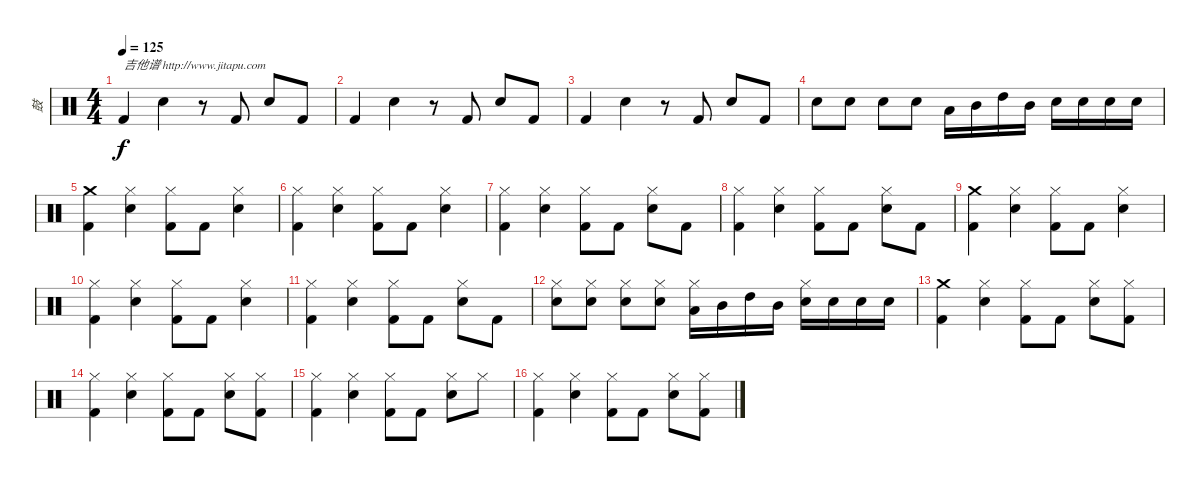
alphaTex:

\track ("鼓" "鼓") {instrument percussion}
\staff {score}
\articulation defaults
\ts (4 4)
\tempo 125
\clef neutral
\ks c "Kick (hit) 2".4{txt "吉他谱 http://www.jitapu.com" dy f} "Electric Snare (hit)".4
r.8 "Kick (hit) 2".8 "Electric Snare (hit)".8 "Kick (hit) 2".8 |
"Kick (hit) 2".4 "Electric Snare (hit)".4 r.8 "Kick (hit) 2".8 "Electric Snare (hit)".8 "Kick (hit) 2".8 |
"Kick (hit) 2".4 "Electric Snare (hit)".4 r.8 "Kick (hit) 2".8 "Electric Snare (hit)".8 "Kick (hit) 2".8 |
"Electric Snare (hit)".8 "Electric Snare (hit)".8 "Electric Snare (hit)".8 "Electric Snare (hit)".8 "Low Tom (hit)".16 "Mid Tom (hit)".16 "High Tom (hit)".16 "Mid Tom (hit)".16 "Electric Snare (hit)".16 "Electric Snare (hit)".16 "Electric Snare (hit)".16 "Electric Snare (hit)".16 |
("Crash medium (hit)" "Kick (hit) 2").4 ("Hi-Hat (closed)" "Electric Snare (hit)").4 ("Hi-Hat (closed)" "Kick (hit) 2").8 "Kick (hit) 2".8 ("Hi-Hat (closed)" "Electric Snare (hit)").4 |
("Hi-Hat (closed)" "Kick (hit) 2").4 ("Hi-Hat (closed)" "Electric Snare (hit)").4 ("Hi-Hat (closed)" "Kick (hit) 2").8 "Kick (hit) 2".8 ("Hi-Hat (closed)" "Electric Snare (hit)").4 |
("Hi-Hat (closed)" "Kick (hit) 2").4 ("Hi-Hat (closed)" "Electric Snare (hit)").4 ("Hi-Hat (closed)" "Kick (hit) 2").8 "Kick (hit) 2".8 ("Hi-Hat (closed)" "Electric Snare (hit)").8 "Kick (hit) 2".8 |
("Hi-Hat (closed)" "Kick (hit) 2").4 ("Hi-Hat (closed)" "Electric Snare (hit)").4 ("Hi-Hat (closed)" "Kick (hit) 2").8 "Kick (hit) 2".8 ("Hi-Hat (closed)" "Electric Snare (hit)").8 "Kick (hit) 2".8 |
("Crash medium (hit)" "Kick (hit) 2").4 ("Hi-Hat (closed)" "Electric Snare (hit)").4 ("Hi-Hat (closed)" "Kick (hit) 2").8 "Kick (hit) 2".8 ("Hi-Hat (closed)" "Electric Snare (hit)").4 |
("Hi-Hat (closed)" "Kick (hit) 2").4 ("Hi-Hat (closed)" "Electric Snare (hit)").4 ("Hi-Hat (closed)" "Kick (hit) 2").8 "Kick (hit) 2".8 ("Hi-Hat (closed)" "Electric Snare (hit)").4 |
("Hi-Hat (closed)" "Kick (hit) 2").4 ("Hi-Hat (closed)" "Electric Snare (hit)").4 ("Hi-Hat (closed)" "Kick (hit) 2").8 "Kick (hit) 2".8 ("Hi-Hat (closed)" "Electric Snare (hit)").8 "Kick (hit) 2".8 |
("Hi-Hat (closed)" "Electric Snare (hit)").8 ("Hi-Hat (closed)" "Electric Snare (hit)").8 ("Hi-Hat (closed)" "Electric Snare (hit)").8 ("Hi-Hat (closed)" "Electric Snare (hit)").8 ("Hi-Hat (closed)" "Low Tom (hit)").16 "Mid Tom (hit)".16 "High Tom (hit)".16 "Mid Tom (hit)".16 ("Hi-Hat (closed)" "Electric Snare (hit)").16 "Electric Snare (hit)".16 "Electric Snare (hit)".16 "Electric Snare (hit)".16 |
("Crash medium (hit)" "Kick (hit) 2").4 ("Hi-Hat (closed)" "Electric Snare (hit)").4 ("Hi-Hat (closed)" "Kick (hit) 2").8 "Kick (hit) 2".8 ("Hi-Hat (closed)" "Electric Snare (hit)").8 ("Hi-Hat (closed)" "Kick (hit) 2").8 |
("Hi-Hat (closed)" "Kick (hit) 2").4 ("Hi-Hat (closed)" "Electric Snare (hit)").4 ("Hi-Hat (closed)" "Kick (hit) 2").8 "Kick (hit) 2".8 ("Hi-Hat (closed)" "Electric Snare (hit)").8 ("Hi-Hat (closed)" "Kick (hit) 2").8 |
("Hi-Hat (closed)" "Kick (hit) 2").4 ("Hi-Hat (closed)" "Electric Snare (hit)").4 ("Hi-Hat (closed)" "Kick (hit) 2").8 "Kick (hit) 2".8 ("Hi-Hat (closed)" "Electric Snare (hit)").8 "Hi-Hat (closed)".8 |
("Hi-Hat (closed)" "Kick (hit) 2").4 ("Hi-Hat (closed)" "Electric Snare (hit)").4 ("Hi-Hat (closed)" "Kick (hit) 2").8 "Kick (hit) 2".8 ("Hi-Hat (closed)" "Electric Snare (hit)").8 ("Hi-Hat (closed)" "Kick (hit) 2").8
